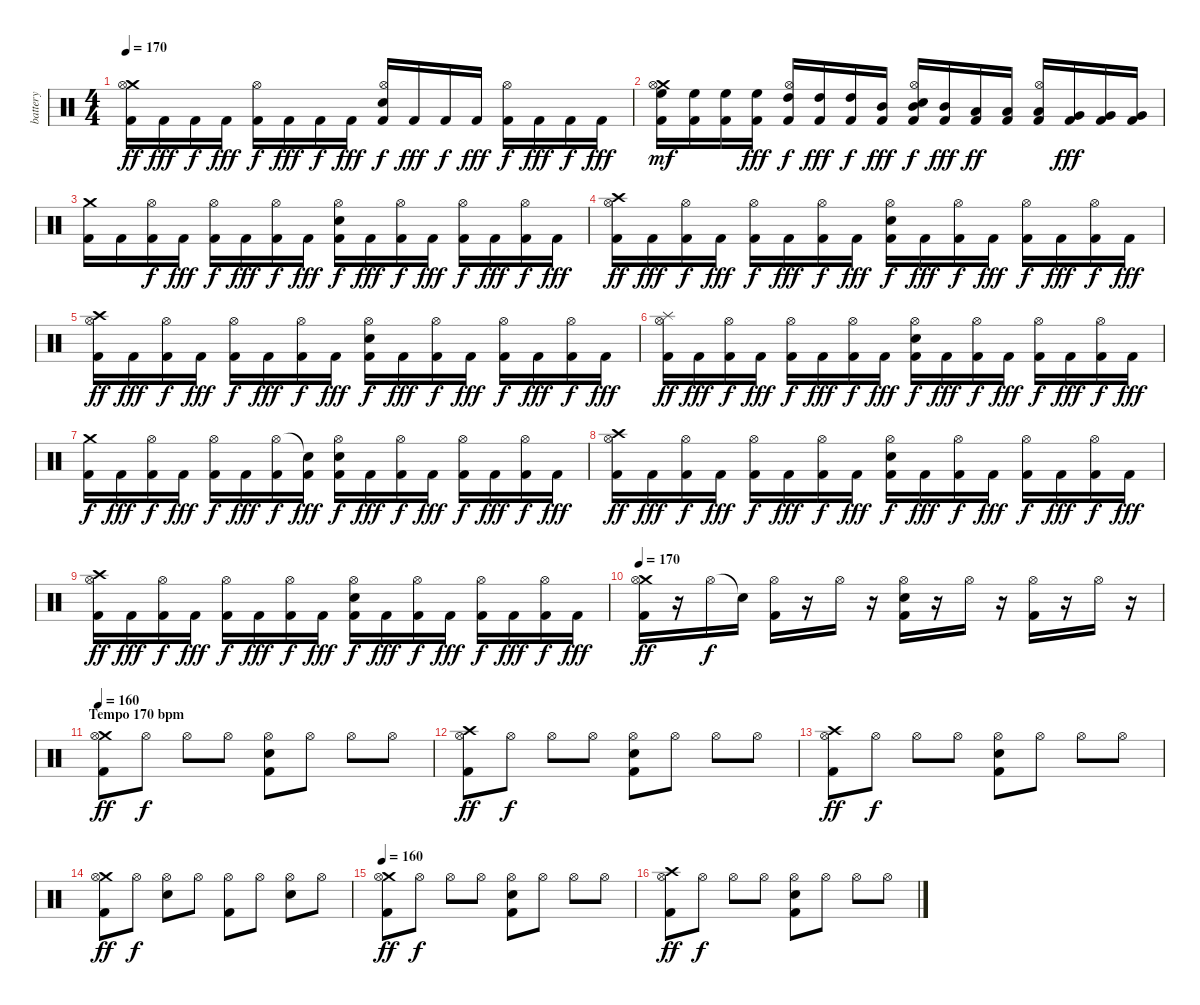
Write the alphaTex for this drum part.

\track ("battery" "battery") {instrument percussion}
\staff {score}
\articulation defaults
\ts (4 4)
\tempo 170
\clef neutral
\ks c
("Kick (hit) 2" "Crash medium (hit)" "Hi-Hat (open)").16{dy ff} "Kick (hit) 2".16{dy fff} "Kick (hit) 2".16{dy f} "Kick (hit) 2".16{dy fff} ("Kick (hit) 2" "Hi-Hat (open)").16{dy f} "Kick (hit) 2".16{dy fff} "Kick (hit) 2".16{dy f} "Kick (hit) 2".16{dy fff} ("Kick (hit) 2" "Electric Snare (hit)" "Hi-Hat (open)").16{dy f} "Kick (hit) 2".16{dy fff} "Kick (hit) 2".16{dy f} "Kick (hit) 2".16{dy fff} ("Kick (hit) 2" "Hi-Hat (open)").16{dy f} "Kick (hit) 2".16{dy fff} "Kick (hit) 2".16{dy f} "Kick (hit) 2".16{dy fff} |
("Kick (hit) 2" "Crash medium (hit)" "Hi-Hat (open)" "High Floor Tom (hit)").16{dy mf} ("Kick (hit) 2" "High Floor Tom (hit)").16 ("Kick (hit) 2" "High Floor Tom (hit)").16 ("Kick (hit) 2" "High Floor Tom (hit)").16{dy fff} ("Kick (hit) 2" "Hi-Hat (open)" "High Tom (hit)").16{dy f} ("Kick (hit) 2" "High Tom (hit)").16{dy fff} ("Kick (hit) 2" "High Tom (hit)").16{dy f} ("Kick (hit) 2" "Mid Tom (hit)").16{dy fff} ("Kick (hit) 2" "Electric Snare (hit)" "Hi-Hat (open)" "Mid Tom (hit)").16{dy f} ("Kick (hit) 2" "Mid Tom (hit)").16{dy fff} ("Kick (hit) 2" "Low Tom (hit)").16{dy ff} ("Kick (hit) 2" "Low Tom (hit)").16 ("Kick (hit) 2" "Hi-Hat (open)" "Low Tom (hit)").16 ("Kick (hit) 2" "Very Low Tom (hit)").16{dy fff} ("Kick (hit) 2" "Very Low Tom (hit)").16 ("Kick (hit) 2" "Very Low Tom (hit)").16 |
("Kick (hit) 2" "Crash medium (hit)").16 "Kick (hit) 2".16 ("Kick (hit) 2" "Hi-Hat (open)").16{dy f} "Kick (hit) 2".16{dy fff} ("Kick (hit) 2" "Hi-Hat (open)").16{dy f} "Kick (hit) 2".16{dy fff} ("Kick (hit) 2" "Hi-Hat (open)").16{dy f} "Kick (hit) 2".16{dy fff} ("Kick (hit) 2" "Electric Snare (hit)" "Hi-Hat (open)").16{dy f} "Kick (hit) 2".16{dy fff} ("Kick (hit) 2" "Hi-Hat (open)").16{dy f} "Kick (hit) 2".16{dy fff} ("Kick (hit) 2" "Hi-Hat (open)").16{dy f} "Kick (hit) 2".16{dy fff} ("Kick (hit) 2" "Hi-Hat (open)").16{dy f} "Kick (hit) 2".16{dy fff} |
("Kick (hit) 2" "Crash high (hit)" "Hi-Hat (open)").16{dy ff} "Kick (hit) 2".16{dy fff} ("Kick (hit) 2" "Hi-Hat (open)").16{dy f} "Kick (hit) 2".16{dy fff} ("Kick (hit) 2" "Hi-Hat (open)").16{dy f} "Kick (hit) 2".16{dy fff} ("Kick (hit) 2" "Hi-Hat (open)").16{dy f} "Kick (hit) 2".16{dy fff} ("Kick (hit) 2" "Electric Snare (hit)" "Hi-Hat (open)").16{dy f} "Kick (hit) 2".16{dy fff} ("Kick (hit) 2" "Hi-Hat (open)").16{dy f} "Kick (hit) 2".16{dy fff} ("Kick (hit) 2" "Hi-Hat (open)").16{dy f} "Kick (hit) 2".16{dy fff} ("Kick (hit) 2" "Hi-Hat (open)").16{dy f} "Kick (hit) 2".16{dy fff} |
("Kick (hit) 2" "Crash high (hit)" "Hi-Hat (open)").16{dy ff} "Kick (hit) 2".16{dy fff} ("Kick (hit) 2" "Hi-Hat (open)").16{dy f} "Kick (hit) 2".16{dy fff} ("Kick (hit) 2" "Hi-Hat (open)").16{dy f} "Kick (hit) 2".16{dy fff} ("Kick (hit) 2" "Hi-Hat (open)").16{dy f} "Kick (hit) 2".16{dy fff} ("Kick (hit) 2" "Electric Snare (hit)" "Hi-Hat (open)").16{dy f} "Kick (hit) 2".16{dy fff} ("Kick (hit) 2" "Hi-Hat (open)").16{dy f} "Kick (hit) 2".16{dy fff} ("Kick (hit) 2" "Hi-Hat (open)").16{dy f} "Kick (hit) 2".16{dy fff} ("Kick (hit) 2" "Hi-Hat (open)").16{dy f} "Kick (hit) 2".16{dy fff} |
("Kick (hit) 2" "Splash (hit)" "Hi-Hat (open)").16{dy ff} "Kick (hit) 2".16{dy fff} ("Kick (hit) 2" "Hi-Hat (open)").16{dy f} "Kick (hit) 2".16{dy fff} ("Kick (hit) 2" "Hi-Hat (open)").16{dy f} "Kick (hit) 2".16{dy fff} ("Kick (hit) 2" "Hi-Hat (open)").16{dy f} "Kick (hit) 2".16{dy fff} ("Kick (hit) 2" "Electric Snare (hit)" "Hi-Hat (open)").16{dy f} "Kick (hit) 2".16{dy fff} ("Kick (hit) 2" "Hi-Hat (open)").16{dy f} "Kick (hit) 2".16{dy fff} ("Kick (hit) 2" "Hi-Hat (open)").16{dy f} "Kick (hit) 2".16{dy fff} ("Kick (hit) 2" "Hi-Hat (open)").16{dy f} "Kick (hit) 2".16{dy fff} |
("Kick (hit) 2" "Crash medium (hit)").16{dy f} "Kick (hit) 2".16{dy fff} ("Kick (hit) 2" "Hi-Hat (open)").16{dy f} "Kick (hit) 2".16{dy fff} ("Kick (hit) 2" "Hi-Hat (open)").16{dy f} "Kick (hit) 2".16{dy fff} ("Kick (hit) 2" "Hi-Hat (open)").16{dy f} ("Kick (hit) 2" "Snare (hit)"{t}).16{dy fff} ("Kick (hit) 2" "Electric Snare (hit)" "Hi-Hat (open)").16{dy f} "Kick (hit) 2".16{dy fff} ("Kick (hit) 2" "Hi-Hat (open)").16{dy f} "Kick (hit) 2".16{dy fff} ("Kick (hit) 2" "Hi-Hat (open)").16{dy f} "Kick (hit) 2".16{dy fff} ("Kick (hit) 2" "Hi-Hat (open)").16{dy f} "Kick (hit) 2".16{dy fff} |
("Kick (hit) 2" "Crash high (hit)" "Hi-Hat (open)").16{dy ff} "Kick (hit) 2".16{dy fff} ("Kick (hit) 2" "Hi-Hat (open)").16{dy f} "Kick (hit) 2".16{dy fff} ("Kick (hit) 2" "Hi-Hat (open)").16{dy f} "Kick (hit) 2".16{dy fff} ("Kick (hit) 2" "Hi-Hat (open)").16{dy f} "Kick (hit) 2".16{dy fff} ("Kick (hit) 2" "Electric Snare (hit)" "Hi-Hat (open)").16{dy f} "Kick (hit) 2".16{dy fff} ("Kick (hit) 2" "Hi-Hat (open)").16{dy f} "Kick (hit) 2".16{dy fff} ("Kick (hit) 2" "Hi-Hat (open)").16{dy f} "Kick (hit) 2".16{dy fff} ("Kick (hit) 2" "Hi-Hat (open)").16{dy f} "Kick (hit) 2".16{dy fff} |
("Kick (hit) 2" "Crash high (hit)" "Hi-Hat (open)").16{dy ff} "Kick (hit) 2".16{dy fff} ("Kick (hit) 2" "Hi-Hat (open)").16{dy f} "Kick (hit) 2".16{dy fff} ("Kick (hit) 2" "Hi-Hat (open)").16{dy f} "Kick (hit) 2".16{dy fff} ("Kick (hit) 2" "Hi-Hat (open)").16{dy f} "Kick (hit) 2".16{dy fff} ("Kick (hit) 2" "Electric Snare (hit)" "Hi-Hat (open)").16{dy f} "Kick (hit) 2".16{dy fff} ("Kick (hit) 2" "Hi-Hat (open)").16{dy f} "Kick (hit) 2".16{dy fff} ("Kick (hit) 2" "Hi-Hat (open)").16{dy f} "Kick (hit) 2".16{dy fff} ("Kick (hit) 2" "Hi-Hat (open)").16{dy f} "Kick (hit) 2".16{dy fff} |
\tempo 170
("Kick (hit) 2" "Crash medium (hit)" "Hi-Hat (open)").16{dy ff} r.16 "Hi-Hat (open)".16{dy f} "Snare (hit)"{t}.16 ("Kick (hit) 2" "Hi-Hat (open)").16 r.16 "Hi-Hat (open)".16 r.16 ("Kick (hit) 2" "Electric Snare (hit)" "Hi-Hat (open)").16 r.16 "Hi-Hat (open)".16 r.16 ("Kick (hit) 2" "Hi-Hat (open)").16 r.16 "Hi-Hat (open)".16 r.16 |
\section ("" "Tempo 170 bpm  ")
\tempo 160
("Kick (hit) 2" "Crash medium (hit)" "Hi-Hat (open)").8{dy ff} "Hi-Hat (open)".8{dy f} "Hi-Hat (open)".8 "Hi-Hat (open)".8 ("Kick (hit) 2" "Electric Snare (hit)" "Hi-Hat (open)").8 "Hi-Hat (open)".8 "Hi-Hat (open)".8 "Hi-Hat (open)".8 |
("Kick (hit) 2" "Crash high (hit)" "Hi-Hat (open)").8{dy ff} "Hi-Hat (open)".8{dy f} "Hi-Hat (open)".8 "Hi-Hat (open)".8 ("Kick (hit) 2" "Electric Snare (hit)" "Hi-Hat (open)").8 "Hi-Hat (open)".8 "Hi-Hat (open)".8 "Hi-Hat (open)".8 |
("Kick (hit) 2" "Crash high (hit)" "Hi-Hat (open)").8{dy ff} "Hi-Hat (open)".8{dy f} "Hi-Hat (open)".8 "Hi-Hat (open)".8 ("Kick (hit) 2" "Electric Snare (hit)" "Hi-Hat (open)").8 "Hi-Hat (open)".8 "Hi-Hat (open)".8 "Hi-Hat (open)".8 |
("Kick (hit) 2" "Crash medium (hit)" "Hi-Hat (open)").8{dy ff} "Hi-Hat (open)".8{dy f} ("Electric Snare (hit)" "Hi-Hat (open)").8 "Hi-Hat (open)".8 ("Kick (hit) 2" "Hi-Hat (open)").8 "Hi-Hat (open)".8 ("Electric Snare (hit)" "Hi-Hat (open)").8 "Hi-Hat (open)".8 |
\tempo 160
("Kick (hit) 2" "Crash medium (hit)" "Hi-Hat (open)").8{dy ff} "Hi-Hat (open)".8{dy f} "Hi-Hat (open)".8 "Hi-Hat (open)".8 ("Kick (hit) 2" "Electric Snare (hit)" "Hi-Hat (open)").8 "Hi-Hat (open)".8 "Hi-Hat (open)".8 "Hi-Hat (open)".8 |
("Kick (hit) 2" "Crash high (hit)" "Hi-Hat (open)").8{dy ff} "Hi-Hat (open)".8{dy f} "Hi-Hat (open)".8 "Hi-Hat (open)".8 ("Kick (hit) 2" "Electric Snare (hit)" "Hi-Hat (open)").8 "Hi-Hat (open)".8 "Hi-Hat (open)".8 "Hi-Hat (open)".8
